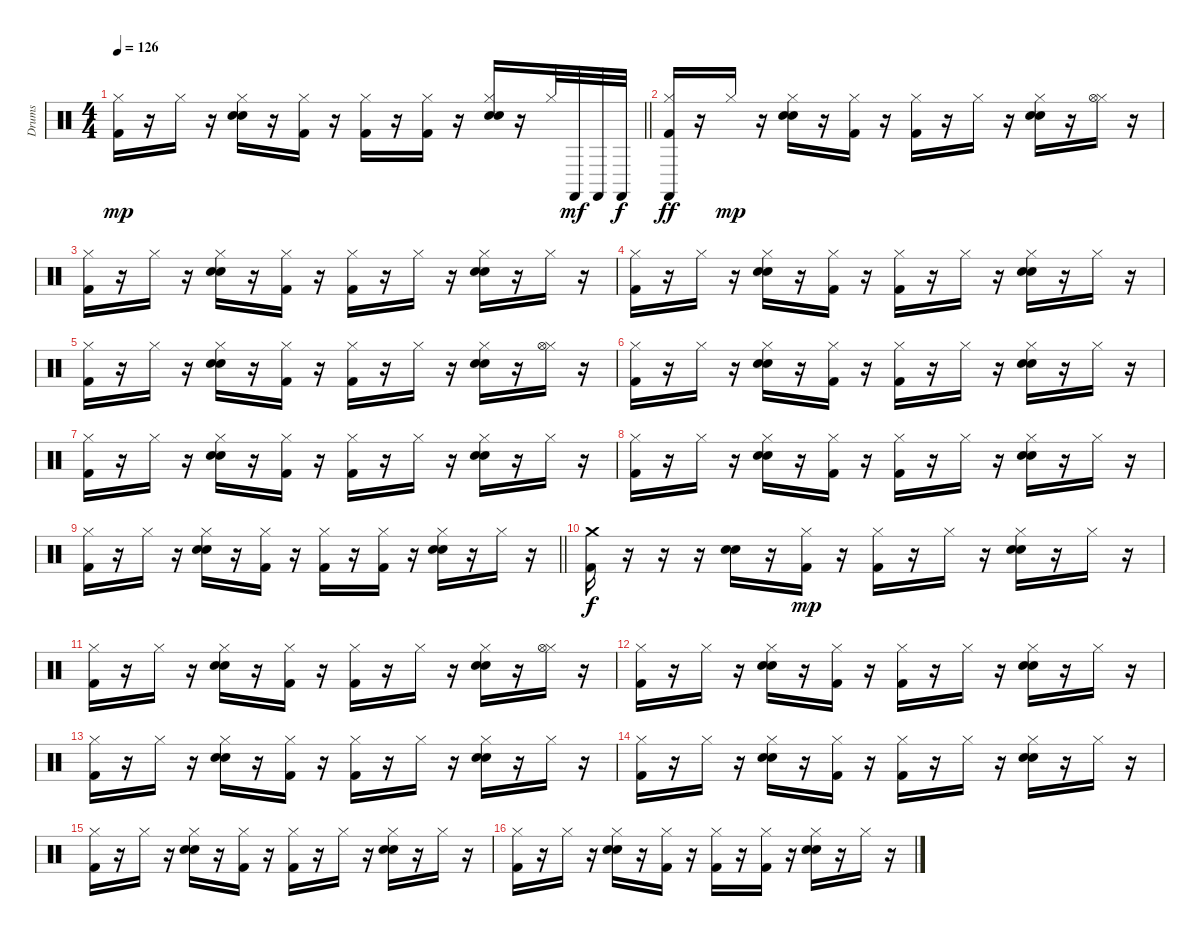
\track ("Drums" "Drums") {instrument percussion}
\staff {score}
\articulation defaults
\ts (4 4)
\tempo 126
\clef neutral
\barLineRight lightlight
\ks c
("Hi-Hat (closed)" "Kick (hit) 2").16{dy mp} r.16 "Hi-Hat (closed)".16 r.16 ("Hi-Hat (closed)" "Snare (hit) 2" "Electric Snare (hit)").16 r.16 ("Hi-Hat (closed)" "Kick (hit) 2").16 r.16 ("Hi-Hat (closed)" "Kick (hit) 2").16 r.16 ("Hi-Hat (closed)" "Kick (hit) 2").16 r.16 ("Hi-Hat (closed)" "Snare (hit) 2" "Electric Snare (hit)").16 r.16 "Hi-Hat (closed)".32 "Castanets (hit)".32{dy mf} "Castanets (hit)".32 "Castanets (hit)".32{dy f} |
\section ("" "")
("Hi-Hat (closed)" "Castanets (hit)" "Kick (hit) 2").16{dy ff} r.16 "Hi-Hat (closed)".16{dy mp} r.16 ("Hi-Hat (closed)" "Snare (hit) 2" "Electric Snare (hit)").16 r.16 ("Hi-Hat (closed)" "Kick (hit) 2").16 r.16 ("Hi-Hat (closed)" "Kick (hit) 2").16 r.16 "Hi-Hat (closed)".16 r.16 ("Hi-Hat (closed)" "Snare (hit) 2" "Electric Snare (hit)").16 r.16 ("Hi-Hat (closed)" "Hi-Hat (open)").16 r.16 |
("Hi-Hat (closed)" "Kick (hit) 2").16 r.16 "Hi-Hat (closed)".16 r.16 ("Hi-Hat (closed)" "Snare (hit) 2" "Electric Snare (hit)").16 r.16 ("Hi-Hat (closed)" "Kick (hit) 2").16 r.16 ("Hi-Hat (closed)" "Kick (hit) 2").16 r.16 "Hi-Hat (closed)".16 r.16 ("Hi-Hat (closed)" "Snare (hit) 2" "Electric Snare (hit)").16 r.16 "Hi-Hat (closed)".16 r.16 |
("Hi-Hat (closed)" "Kick (hit) 2").16 r.16 "Hi-Hat (closed)".16 r.16 ("Hi-Hat (closed)" "Snare (hit) 2" "Electric Snare (hit)").16 r.16 ("Hi-Hat (closed)" "Kick (hit) 2").16 r.16 ("Hi-Hat (closed)" "Kick (hit) 2").16 r.16 "Hi-Hat (closed)".16 r.16 ("Hi-Hat (closed)" "Snare (hit) 2" "Electric Snare (hit)").16 r.16 "Hi-Hat (closed)".16 r.16 |
("Hi-Hat (closed)" "Kick (hit) 2").16 r.16 "Hi-Hat (closed)".16 r.16 ("Hi-Hat (closed)" "Snare (hit) 2" "Electric Snare (hit)").16 r.16 ("Hi-Hat (closed)" "Kick (hit) 2").16 r.16 ("Hi-Hat (closed)" "Kick (hit) 2").16 r.16 "Hi-Hat (closed)".16 r.16 ("Hi-Hat (closed)" "Snare (hit) 2" "Electric Snare (hit)").16 r.16 ("Hi-Hat (closed)" "Hi-Hat (open)").16 r.16 |
("Hi-Hat (closed)" "Kick (hit) 2").16 r.16 "Hi-Hat (closed)".16 r.16 ("Hi-Hat (closed)" "Snare (hit) 2" "Electric Snare (hit)").16 r.16 ("Hi-Hat (closed)" "Kick (hit) 2").16 r.16 ("Hi-Hat (closed)" "Kick (hit) 2").16 r.16 "Hi-Hat (closed)".16 r.16 ("Hi-Hat (closed)" "Snare (hit) 2" "Electric Snare (hit)").16 r.16 "Hi-Hat (closed)".16 r.16 |
("Hi-Hat (closed)" "Kick (hit) 2").16 r.16 "Hi-Hat (closed)".16 r.16 ("Hi-Hat (closed)" "Snare (hit) 2" "Electric Snare (hit)").16 r.16 ("Hi-Hat (closed)" "Kick (hit) 2").16 r.16 ("Hi-Hat (closed)" "Kick (hit) 2").16 r.16 "Hi-Hat (closed)".16 r.16 ("Hi-Hat (closed)" "Snare (hit) 2" "Electric Snare (hit)").16 r.16 "Hi-Hat (closed)".16 r.16 |
("Hi-Hat (closed)" "Kick (hit) 2").16 r.16 "Hi-Hat (closed)".16 r.16 ("Hi-Hat (closed)" "Snare (hit) 2" "Electric Snare (hit)").16 r.16 ("Hi-Hat (closed)" "Kick (hit) 2").16 r.16 ("Hi-Hat (closed)" "Kick (hit) 2").16 r.16 "Hi-Hat (closed)".16 r.16 ("Hi-Hat (closed)" "Snare (hit) 2" "Electric Snare (hit)").16 r.16 "Hi-Hat (closed)".16 r.16 |
\barLineRight lightlight
("Hi-Hat (closed)" "Kick (hit) 2").16 r.16 "Hi-Hat (closed)".16 r.16 ("Hi-Hat (closed)" "Snare (hit) 2" "Electric Snare (hit)").16 r.16 ("Hi-Hat (closed)" "Kick (hit) 2").16 r.16 ("Hi-Hat (closed)" "Kick (hit) 2").16 r.16 ("Hi-Hat (closed)" "Kick (hit) 2").16 r.16 ("Hi-Hat (closed)" "Snare (hit) 2" "Electric Snare (hit)").16 r.16 "Hi-Hat (closed)".16 r.16 |
\section ("" "")
("Crash medium (hit)" "Kick (hit) 2").16{dy f} r.16 r.16 r.16 ("Snare (hit) 2" "Electric Snare (hit)").16 r.16 ("Hi-Hat (closed)" "Kick (hit) 2").16{dy mp} r.16 ("Hi-Hat (closed)" "Kick (hit) 2").16 r.16 "Hi-Hat (closed)".16 r.16 ("Hi-Hat (closed)" "Snare (hit) 2" "Electric Snare (hit)").16 r.16 "Hi-Hat (closed)".16 r.16 |
("Hi-Hat (closed)" "Kick (hit) 2").16 r.16 "Hi-Hat (closed)".16 r.16 ("Hi-Hat (closed)" "Snare (hit) 2" "Electric Snare (hit)").16 r.16 ("Hi-Hat (closed)" "Kick (hit) 2").16 r.16 ("Hi-Hat (closed)" "Kick (hit) 2").16 r.16 "Hi-Hat (closed)".16 r.16 ("Hi-Hat (closed)" "Snare (hit) 2" "Electric Snare (hit)").16 r.16 ("Hi-Hat (closed)" "Hi-Hat (open)").16 r.16 |
("Hi-Hat (closed)" "Kick (hit) 2").16 r.16 "Hi-Hat (closed)".16 r.16 ("Hi-Hat (closed)" "Snare (hit) 2" "Electric Snare (hit)").16 r.16 ("Hi-Hat (closed)" "Kick (hit) 2").16 r.16 ("Hi-Hat (closed)" "Kick (hit) 2").16 r.16 "Hi-Hat (closed)".16 r.16 ("Hi-Hat (closed)" "Snare (hit) 2" "Electric Snare (hit)").16 r.16 "Hi-Hat (closed)".16 r.16 |
("Hi-Hat (closed)" "Kick (hit) 2").16 r.16 "Hi-Hat (closed)".16 r.16 ("Hi-Hat (closed)" "Snare (hit) 2" "Electric Snare (hit)").16 r.16 ("Hi-Hat (closed)" "Kick (hit) 2").16 r.16 ("Hi-Hat (closed)" "Kick (hit) 2").16 r.16 "Hi-Hat (closed)".16 r.16 ("Hi-Hat (closed)" "Snare (hit) 2" "Electric Snare (hit)").16 r.16 "Hi-Hat (closed)".16 r.16 |
("Hi-Hat (closed)" "Kick (hit) 2").16 r.16 "Hi-Hat (closed)".16 r.16 ("Hi-Hat (closed)" "Snare (hit) 2" "Electric Snare (hit)").16 r.16 ("Hi-Hat (closed)" "Kick (hit) 2").16 r.16 ("Hi-Hat (closed)" "Kick (hit) 2").16 r.16 "Hi-Hat (closed)".16 r.16 ("Hi-Hat (closed)" "Snare (hit) 2" "Electric Snare (hit)").16 r.16 "Hi-Hat (closed)".16 r.16 |
("Hi-Hat (closed)" "Kick (hit) 2").16 r.16 "Hi-Hat (closed)".16 r.16 ("Hi-Hat (closed)" "Snare (hit) 2" "Electric Snare (hit)").16 r.16 ("Hi-Hat (closed)" "Kick (hit) 2").16 r.16 ("Hi-Hat (closed)" "Kick (hit) 2").16 r.16 "Hi-Hat (closed)".16 r.16 ("Hi-Hat (closed)" "Snare (hit) 2" "Electric Snare (hit)").16 r.16 "Hi-Hat (closed)".16 r.16 |
("Hi-Hat (closed)" "Kick (hit) 2").16 r.16 "Hi-Hat (closed)".16 r.16 ("Hi-Hat (closed)" "Snare (hit) 2" "Electric Snare (hit)").16 r.16 ("Hi-Hat (closed)" "Kick (hit) 2").16 r.16 ("Hi-Hat (closed)" "Kick (hit) 2").16 r.16 ("Hi-Hat (closed)" "Kick (hit) 2").16 r.16 ("Hi-Hat (closed)" "Snare (hit) 2" "Electric Snare (hit)").16 r.16 "Hi-Hat (closed)".16 r.16
